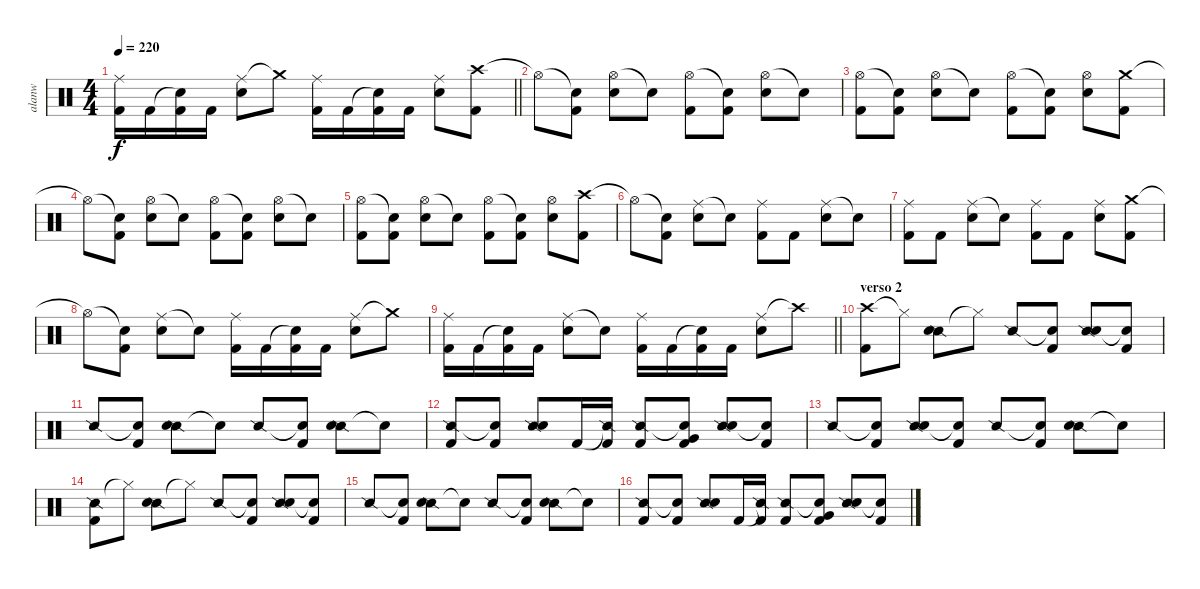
\track ("alanw" "alanw") {instrument percussion}
\staff {score}
\articulation defaults
\ts (4 4)
\tempo 220
\clef neutral
\barLineRight lightlight
\ks c
("Ride (middle)" "Kick (hit) 2").16{dy f} "Kick (hit) 2".16 ("Snare (hit)"{t} "Kick (hit) 2").16 "Kick (hit) 2".16 ("Ride (middle)" "Electric Snare (hit)").8 "Crash medium (hit)"{t}.8 ("Ride (middle)" "Kick (hit) 2").16 "Kick (hit) 2".16 ("Snare (hit)"{t} "Kick (hit) 2").16 "Kick (hit) 2".16 ("Ride (middle)" "Electric Snare (hit)").8 ("Crash high (hit)" "Kick (hit) 2").8 |
"Hi-Hat (open)"{t}.8 ("Snare (hit)"{t} "Kick (hit) 2").8 ("Hi-Hat (open)" "Electric Snare (hit)").8 "Snare (hit)"{t}.8 ("Hi-Hat (open)" "Kick (hit) 2").8 ("Snare (hit)"{t} "Kick (hit) 2").8 ("Hi-Hat (open)" "Electric Snare (hit)").8 "Snare (hit)"{t}.8 |
("Hi-Hat (open)" "Kick (hit) 2").8 ("Snare (hit)"{t} "Kick (hit) 2").8 ("Hi-Hat (open)" "Electric Snare (hit)").8 "Snare (hit)"{t}.8 ("Hi-Hat (open)" "Kick (hit) 2").8 ("Snare (hit)"{t} "Kick (hit) 2").8 ("Hi-Hat (open)" "Electric Snare (hit)").8 ("Crash medium (hit)" "Kick (hit) 2").8 |
"Hi-Hat (open)"{t}.8 ("Snare (hit)"{t} "Kick (hit) 2").8 ("Hi-Hat (open)" "Electric Snare (hit)").8 "Snare (hit)"{t}.8 ("Hi-Hat (open)" "Kick (hit) 2").8 ("Snare (hit)"{t} "Kick (hit) 2").8 ("Hi-Hat (open)" "Electric Snare (hit)").8 "Snare (hit)"{t}.8 |
("Hi-Hat (open)" "Kick (hit) 2").8 ("Snare (hit)"{t} "Kick (hit) 2").8 ("Hi-Hat (open)" "Electric Snare (hit)").8 "Snare (hit)"{t}.8 ("Hi-Hat (open)" "Kick (hit) 2").8 ("Snare (hit)"{t} "Kick (hit) 2").8 ("Hi-Hat (open)" "Electric Snare (hit)").8 ("Crash high (hit)" "Kick (hit) 2").8 |
"Hi-Hat (open)"{t}.8 ("Snare (hit)"{t} "Kick (hit) 2").8 ("Ride (middle)" "Electric Snare (hit)").8 "Snare (hit)"{t}.8 ("Ride (middle)" "Kick (hit) 2").8 "Kick (hit) 2".8 ("Ride (middle)" "Electric Snare (hit)").8 "Snare (hit)"{t}.8 |
("Ride (middle)" "Kick (hit) 2").8 "Kick (hit) 2".8 ("Ride (middle)" "Electric Snare (hit)").8 "Snare (hit)"{t}.8 ("Ride (middle)" "Kick (hit) 2").8 "Kick (hit) 2".8 ("Ride (middle)" "Electric Snare (hit)").8 ("Crash medium (hit)" "Kick (hit) 2").8 |
"Hi-Hat (open)"{t}.8 ("Snare (hit)"{t} "Kick (hit) 2").8 ("Ride (middle)" "Electric Snare (hit)").8 "Snare (hit)"{t}.8 ("Ride (middle)" "Kick (hit) 2").16 "Kick (hit) 2".16 ("Snare (hit)"{t} "Kick (hit) 2").16 "Kick (hit) 2".16 ("Ride (middle)" "Electric Snare (hit)").8 "Crash medium (hit)"{t}.8 |
\barLineRight lightlight
("Ride (middle)" "Kick (hit) 2").16 "Kick (hit) 2".16 ("Snare (hit)"{t} "Kick (hit) 2").16 "Kick (hit) 2".16 ("Ride (middle)" "Electric Snare (hit)").8 "Snare (hit)"{t}.8 ("Ride (middle)" "Kick (hit) 2").16 "Kick (hit) 2".16 ("Snare (hit)"{t} "Kick (hit) 2").16 "Kick (hit) 2".16 ("Ride (middle)" "Electric Snare (hit)").8 "Crash high (hit)"{t}.8 |
\section ("" "verso 2")
("Crash high (hit)" "Kick (hit) 2").8 "Hi-Hat (closed)"{t}.8 ("Snare (side stick) 2" "Electric Snare (hit)").8 "Hi-Hat (closed)"{t}.8 "Snare (side stick) 2".8 ("Snare (hit)"{t} "Kick (hit) 2").8 ("Snare (side stick) 2" "Electric Snare (hit)").8 ("Snare (hit)"{t} "Kick (hit) 2").8 |
"Snare (side stick) 2".8 ("Snare (hit)"{t} "Kick (hit) 2").8 ("Snare (side stick) 2" "Electric Snare (hit)").8 "Snare (hit)"{t}.8 "Snare (side stick) 2".8 ("Snare (hit)"{t} "Kick (hit) 2").8 ("Snare (side stick) 2" "Electric Snare (hit)").8 "Snare (hit)"{t}.8 |
("Snare (side stick) 2" "Kick (hit) 2").8 ("Snare (hit)"{t} "Kick (hit) 2").8 ("Snare (side stick) 2" "Electric Snare (hit)").8 "Kick (hit) 2".16 ("Snare (side stick) 2"{t} "Kick (hit) 2").16 ("Snare (side stick) 2" "Kick (hit) 2").8 ("Snare (hit)"{t} "Very Low Tom (hit)" "Kick (hit) 2").8 ("Snare (side stick) 2" "Electric Snare (hit)").8 ("Snare (hit)"{t} "Kick (hit) 2").8 |
"Snare (side stick) 2".8 ("Snare (hit)"{t} "Kick (hit) 2").8 ("Snare (side stick) 2" "Electric Snare (hit)").8 ("Snare (hit)"{t} "Kick (hit) 2").8 "Snare (side stick) 2".8 ("Snare (hit)"{t} "Kick (hit) 2").8 ("Snare (side stick) 2" "Electric Snare (hit)").8 "Snare (hit)"{t}.8 |
("Snare (side stick) 2" "Kick (hit) 2").8 "Hi-Hat (closed)"{t}.8 ("Snare (side stick) 2" "Electric Snare (hit)").8 "Hi-Hat (closed)"{t}.8 "Snare (side stick) 2".8 ("Snare (hit)"{t} "Kick (hit) 2").8 ("Snare (side stick) 2" "Electric Snare (hit)").8 ("Snare (hit)"{t} "Kick (hit) 2").8 |
"Snare (side stick) 2".8 ("Snare (hit)"{t} "Kick (hit) 2").8 ("Snare (side stick) 2" "Electric Snare (hit)").8 "Snare (hit)"{t}.8 "Snare (side stick) 2".8 ("Snare (hit)"{t} "Kick (hit) 2").8 ("Snare (side stick) 2" "Electric Snare (hit)").8 "Snare (hit)"{t}.8 |
("Snare (side stick) 2" "Kick (hit) 2").8 ("Snare (hit)"{t} "Kick (hit) 2").8 ("Snare (side stick) 2" "Electric Snare (hit)").8 "Kick (hit) 2".16 ("Snare (side stick) 2"{t} "Kick (hit) 2").16 ("Snare (side stick) 2" "Kick (hit) 2").8 ("Snare (hit)"{t} "Very Low Tom (hit)" "Kick (hit) 2").8 ("Snare (side stick) 2" "Electric Snare (hit)").8 ("Snare (hit)"{t} "Kick (hit) 2").8
